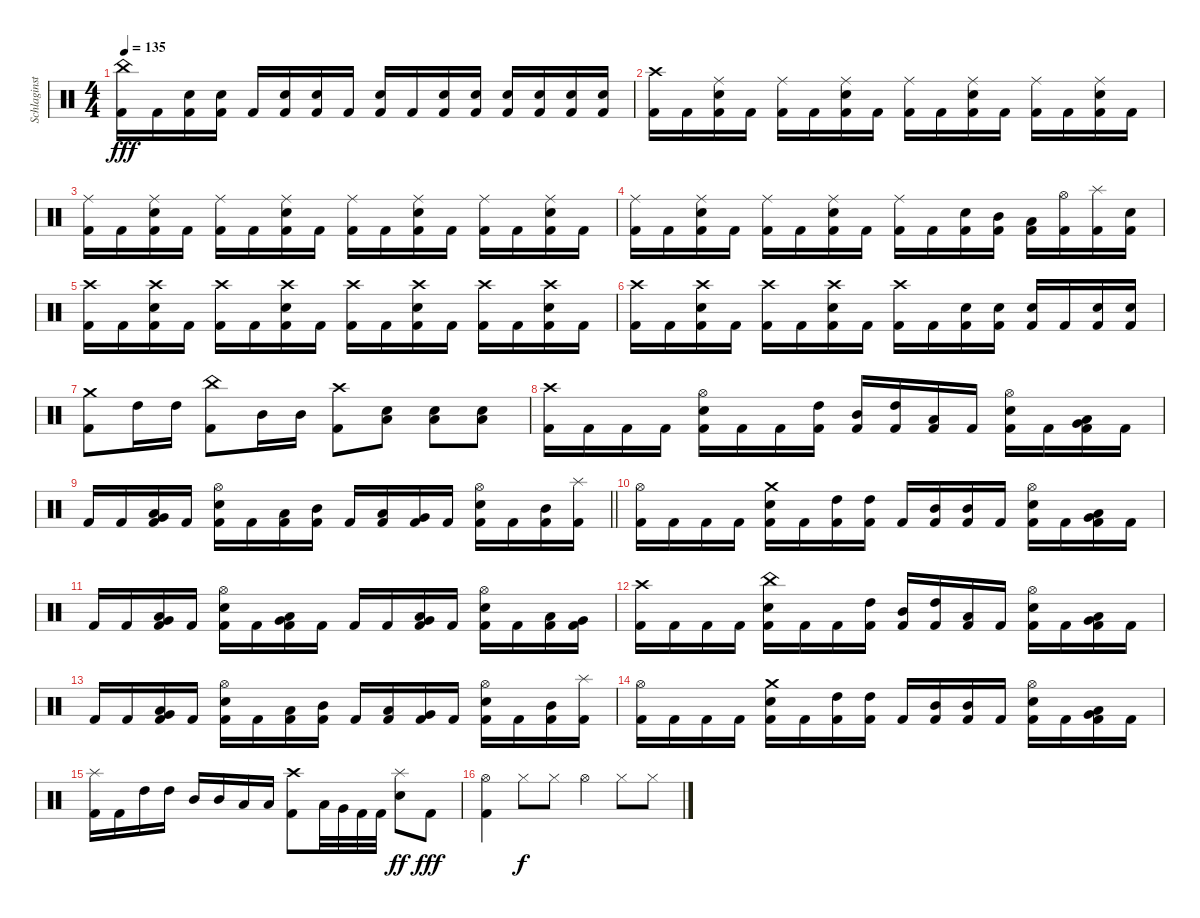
\track ("Schlaginstrumente - Auswahl" "Schlaginst") {instrument percussion}
\staff {score}
\articulation defaults
\ts (4 4)
\tempo 135
\clef neutral
\ks c
("China (hit)" "Kick (hit) 2").16{dy fff} "Kick (hit) 2".16 ("Snare (hit) 2" "Kick (hit) 2").16 ("Snare (hit) 2" "Kick (hit) 2").16 "Kick (hit) 2".16 ("Snare (hit) 2" "Kick (hit) 2").16 ("Snare (hit) 2" "Kick (hit) 2").16 "Kick (hit) 2".16 ("Snare (hit) 2" "Kick (hit) 2").16 "Kick (hit) 2".16 ("Snare (hit) 2" "Kick (hit) 2").16 ("Snare (hit) 2" "Kick (hit) 2").16 ("Snare (hit) 2" "Kick (hit) 2").16 ("Snare (hit) 2" "Kick (hit) 2").16 ("Snare (hit) 2" "Kick (hit) 2").16 ("Snare (hit) 2" "Kick (hit) 2").16 |
("Crash high (hit)" "Kick (hit) 2").16 "Kick (hit) 2".16 ("Ride (middle)" "Snare (hit) 2" "Kick (hit) 2").16 "Kick (hit) 2".16 ("Ride (middle)" "Kick (hit) 2").16 "Kick (hit) 2".16 ("Ride (middle)" "Snare (hit) 2" "Kick (hit) 2").16 "Kick (hit) 2".16 ("Ride (middle)" "Kick (hit) 2").16 "Kick (hit) 2".16 ("Ride (middle)" "Snare (hit) 2" "Kick (hit) 2").16 "Kick (hit) 2".16 ("Ride (middle)" "Kick (hit) 2").16 "Kick (hit) 2".16 ("Ride (middle)" "Snare (hit) 2" "Kick (hit) 2").16 "Kick (hit) 2".16 |
("Ride (middle)" "Kick (hit) 2").16 "Kick (hit) 2".16 ("Ride (middle)" "Snare (hit) 2" "Kick (hit) 2").16 "Kick (hit) 2".16 ("Ride (middle)" "Kick (hit) 2").16 "Kick (hit) 2".16 ("Ride (middle)" "Snare (hit) 2" "Kick (hit) 2").16 "Kick (hit) 2".16 ("Ride (middle)" "Kick (hit) 2").16 "Kick (hit) 2".16 ("Ride (middle)" "Snare (hit) 2" "Kick (hit) 2").16 "Kick (hit) 2".16 ("Ride (middle)" "Kick (hit) 2").16 "Kick (hit) 2".16 ("Ride (middle)" "Snare (hit) 2" "Kick (hit) 2").16 "Kick (hit) 2".16 |
("Ride (middle)" "Kick (hit) 2").16 "Kick (hit) 2".16 ("Ride (middle)" "Snare (hit) 2" "Kick (hit) 2").16 "Kick (hit) 2".16 ("Ride (middle)" "Kick (hit) 2").16 "Kick (hit) 2".16 ("Ride (middle)" "Snare (hit) 2" "Kick (hit) 2").16 "Kick (hit) 2".16 ("Ride (middle)" "Kick (hit) 2").16 "Kick (hit) 2".16 ("Snare (hit) 2" "Kick (hit) 2").16 ("Mid Tom (hit)" "Kick (hit) 2").16 ("Low Tom (hit)" "Kick (hit) 2").16 ("Hi-Hat (open)" "Kick (hit) 2").16 ("Splash (hit)" "Kick (hit) 2").16 ("Snare (hit) 2" "Kick (hit) 2").16 |
("Crash high (hit)" "Kick (hit) 2").16 "Kick (hit) 2".16 ("Crash high (hit)" "Snare (hit) 2" "Kick (hit) 2").16 "Kick (hit) 2".16 ("Crash high (hit)" "Kick (hit) 2").16 "Kick (hit) 2".16 ("Crash high (hit)" "Snare (hit) 2" "Kick (hit) 2").16 "Kick (hit) 2".16 ("Crash high (hit)" "Kick (hit) 2").16 "Kick (hit) 2".16 ("Crash high (hit)" "Snare (hit) 2" "Kick (hit) 2").16 "Kick (hit) 2".16 ("Crash high (hit)" "Kick (hit) 2").16 "Kick (hit) 2".16 ("Crash high (hit)" "Snare (hit) 2" "Kick (hit) 2").16 "Kick (hit) 2".16 |
("Crash high (hit)" "Kick (hit) 2").16 "Kick (hit) 2".16 ("Crash high (hit)" "Snare (hit) 2" "Kick (hit) 2").16 "Kick (hit) 2".16 ("Crash high (hit)" "Kick (hit) 2").16 "Kick (hit) 2".16 ("Crash high (hit)" "Snare (hit) 2" "Kick (hit) 2").16 "Kick (hit) 2".16 ("Crash high (hit)" "Kick (hit) 2").16 "Kick (hit) 2".16 ("Snare (hit) 2" "Kick (hit) 2").16 ("Snare (hit) 2" "Kick (hit) 2").16 ("Snare (hit) 2" "Kick (hit) 2").16 "Kick (hit) 2".16 ("Snare (hit) 2" "Kick (hit) 2").16 ("Snare (hit) 2" "Kick (hit) 2").16 |
("Crash medium (hit)" "Kick (hit) 2").8 "High Tom (hit)".16 "High Tom (hit)".16 ("China (hit)" "Kick (hit) 2").8 "Mid Tom (hit)".16 "Mid Tom (hit)".16 ("Crash high (hit)" "Kick (hit) 2").8 ("Snare (hit) 2" "Low Floor Tom (hit)").8 ("Snare (hit) 2" "Low Floor Tom (hit)").8 ("Snare (hit) 2" "Low Floor Tom (hit)").8 |
("Crash high (hit)" "Kick (hit) 2").16 "Kick (hit) 2".16 "Kick (hit) 2".16 "Kick (hit) 2".16 ("Hi-Hat (open)" "Snare (hit) 2" "Kick (hit) 2").16 "Kick (hit) 2".16 "Kick (hit) 2".16 ("High Tom (hit)" "Kick (hit) 2").16 ("Mid Tom (hit)" "Kick (hit) 2").16 ("High Tom (hit)" "Kick (hit) 2").16 ("Low Tom (hit)" "Kick (hit) 2").16 "Kick (hit) 2".16 ("Hi-Hat (open)" "Snare (hit) 2" "Kick (hit) 2").16 "Kick (hit) 2".16 ("Very Low Tom (hit)" "Low Floor Tom (hit)" "Kick (hit) 2").16 "Kick (hit) 2".16 |
\barLineRight lightlight "Kick (hit) 2".16 "Kick (hit) 2".16
("Very Low Tom (hit)" "Low Floor Tom (hit)" "Kick (hit) 2").16 "Kick (hit) 2".16 ("Hi-Hat (open)" "Snare (hit) 2" "Kick (hit) 2").16 "Kick (hit) 2".16 ("Low Tom (hit)" "Kick (hit) 2").16 ("Mid Tom (hit)" "Kick (hit) 2").16 "Kick (hit) 2".16 ("Low Tom (hit)" "Kick (hit) 2").16 ("Very Low Tom (hit)" "Kick (hit) 2").16 "Kick (hit) 2".16 ("Hi-Hat (open)" "Snare (hit) 2" "Kick (hit) 2").16 "Kick (hit) 2".16 ("Mid Tom (hit)" "Kick (hit) 2").16 ("Splash (hit)" "Kick (hit) 2").16 |
("Hi-Hat (open)" "Kick (hit) 2").16 "Kick (hit) 2".16 "Kick (hit) 2".16 "Kick (hit) 2".16 ("Crash medium (hit)" "Snare (hit) 2" "Kick (hit) 2").16 "Kick (hit) 2".16 ("High Tom (hit)" "Kick (hit) 2").16 ("High Tom (hit)" "Kick (hit) 2").16 "Kick (hit) 2".16 ("Mid Tom (hit)" "Kick (hit) 2").16 ("Mid Tom (hit)" "Kick (hit) 2").16 "Kick (hit) 2".16 ("Hi-Hat (open)" "Snare (hit) 2" "Kick (hit) 2").16 "Kick (hit) 2".16 ("Very Low Tom (hit)" "Low Floor Tom (hit)" "Kick (hit) 2").16 "Kick (hit) 2".16 |
"Kick (hit) 2".16 "Kick (hit) 2".16 ("Very Low Tom (hit)" "Low Floor Tom (hit)" "Kick (hit) 2").16 "Kick (hit) 2".16 ("Hi-Hat (open)" "Snare (hit) 2" "Kick (hit) 2").16 "Kick (hit) 2".16 ("Very Low Tom (hit)" "Low Floor Tom (hit)" "Kick (hit) 2").16 "Kick (hit) 2".16 "Kick (hit) 2".16 "Kick (hit) 2".16 ("Very Low Tom (hit)" "Low Floor Tom (hit)" "Kick (hit) 2").16 "Kick (hit) 2".16 ("Hi-Hat (open)" "Snare (hit) 2" "Kick (hit) 2").16 "Kick (hit) 2".16 ("Low Floor Tom (hit)" "Kick (hit) 2").16 ("Very Low Tom (hit)" "Kick (hit) 2").16 |
("Crash high (hit)" "Kick (hit) 2").16 "Kick (hit) 2".16 "Kick (hit) 2".16 "Kick (hit) 2".16 ("China (hit)" "Snare (hit) 2" "Kick (hit) 2").16 "Kick (hit) 2".16 "Kick (hit) 2".16 ("High Tom (hit)" "Kick (hit) 2").16 ("Mid Tom (hit)" "Kick (hit) 2").16 ("High Tom (hit)" "Kick (hit) 2").16 ("Low Tom (hit)" "Kick (hit) 2").16 "Kick (hit) 2".16 ("Hi-Hat (open)" "Snare (hit) 2" "Kick (hit) 2").16 "Kick (hit) 2".16 ("Very Low Tom (hit)" "Low Floor Tom (hit)" "Kick (hit) 2").16 "Kick (hit) 2".16 |
"Kick (hit) 2".16 "Kick (hit) 2".16 ("Very Low Tom (hit)" "Low Floor Tom (hit)" "Kick (hit) 2").16 "Kick (hit) 2".16 ("Hi-Hat (open)" "Snare (hit) 2" "Kick (hit) 2").16 "Kick (hit) 2".16 ("Low Tom (hit)" "Kick (hit) 2").16 ("Mid Tom (hit)" "Kick (hit) 2").16 "Kick (hit) 2".16 ("Low Tom (hit)" "Kick (hit) 2").16 ("Very Low Tom (hit)" "Kick (hit) 2").16 "Kick (hit) 2".16 ("Hi-Hat (open)" "Snare (hit) 2" "Kick (hit) 2").16 "Kick (hit) 2".16 ("Mid Tom (hit)" "Kick (hit) 2").16 ("Splash (hit)" "Kick (hit) 2").16 |
("Hi-Hat (open)" "Kick (hit) 2").16 "Kick (hit) 2".16 "Kick (hit) 2".16 "Kick (hit) 2".16 ("Crash medium (hit)" "Snare (hit) 2" "Kick (hit) 2").16 "Kick (hit) 2".16 ("High Tom (hit)" "Kick (hit) 2").16 ("High Tom (hit)" "Kick (hit) 2").16 "Kick (hit) 2".16 ("Mid Tom (hit)" "Kick (hit) 2").16 ("Mid Tom (hit)" "Kick (hit) 2").16 "Kick (hit) 2".16 ("Hi-Hat (open)" "Snare (hit) 2" "Kick (hit) 2").16 "Kick (hit) 2".16 ("Very Low Tom (hit)" "Low Floor Tom (hit)" "Kick (hit) 2").16 "Kick (hit) 2".16 |
("Splash (hit)" "Kick (hit) 2").16 "Kick (hit) 2".16 "High Tom (hit)".16 "High Tom (hit)".16 "Mid Tom (hit)".16 "Mid Tom (hit)".16 "Low Tom (hit)".16 "Low Tom (hit)".16 ("Crash high (hit)" "Kick (hit) 2").8 "Low Floor Tom (hit)".32 "Very Low Tom (hit)".32 "Kick (hit) 2".32 "Kick (hit) 2".32 ("Splash (hit)" "Snare (hit) 2").8{dy ff} "Kick (hit) 2".8{dy fff} |
("Hi-Hat (open)" "Kick (hit) 2").4 "Hi-Hat (closed)".8{dy f} "Hi-Hat (closed)".8 "Hi-Hat (open)".4 "Hi-Hat (closed)".8 "Hi-Hat (closed)".8
